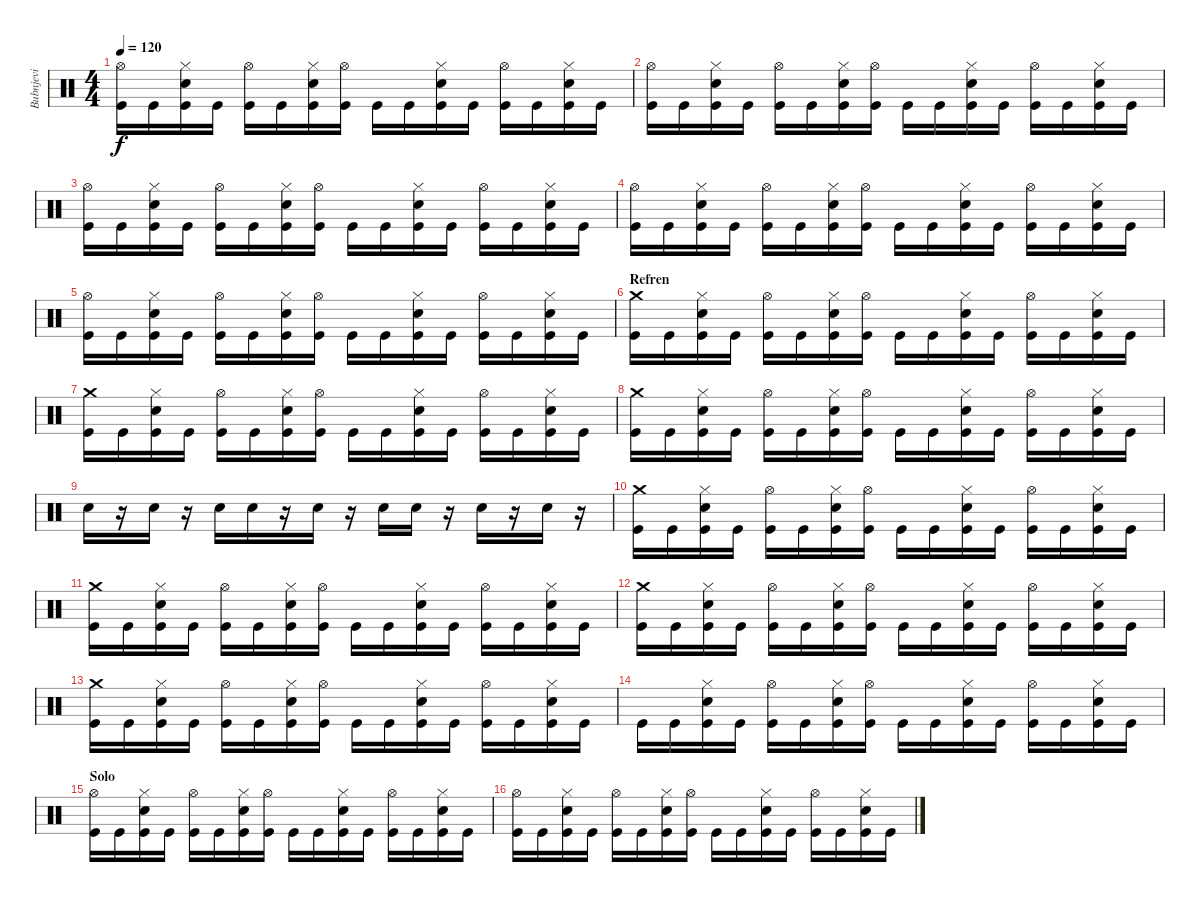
\track ("Bubnjevi" "Bubnjevi") {instrument percussion}
\staff {score}
\articulation defaults
\ts (4 4)
\tempo 120
\clef neutral
\ks c
("Hi-Hat (open)" "Kick (hit)").16{dy f} "Kick (hit)".16 ("Electric Snare (hit)" "Hi-Hat (closed)" "Kick (hit)").16 "Kick (hit)".16 ("Hi-Hat (open)" "Kick (hit)").16 "Kick (hit)".16 ("Electric Snare (hit)" "Hi-Hat (closed)" "Kick (hit)").16 ("Hi-Hat (open)" "Kick (hit)").16 "Kick (hit)".16 "Kick (hit)".16 ("Electric Snare (hit)" "Hi-Hat (closed)" "Kick (hit)").16 "Kick (hit)".16 ("Hi-Hat (open)" "Kick (hit)").16 "Kick (hit)".16 ("Electric Snare (hit)" "Hi-Hat (closed)" "Kick (hit)").16 "Kick (hit)".16 |
("Hi-Hat (open)" "Kick (hit)").16 "Kick (hit)".16 ("Electric Snare (hit)" "Hi-Hat (closed)" "Kick (hit)").16 "Kick (hit)".16 ("Hi-Hat (open)" "Kick (hit)").16 "Kick (hit)".16 ("Electric Snare (hit)" "Hi-Hat (closed)" "Kick (hit)").16 ("Hi-Hat (open)" "Kick (hit)").16 "Kick (hit)".16 "Kick (hit)".16 ("Electric Snare (hit)" "Hi-Hat (closed)" "Kick (hit)").16 "Kick (hit)".16 ("Hi-Hat (open)" "Kick (hit)").16 "Kick (hit)".16 ("Electric Snare (hit)" "Hi-Hat (closed)" "Kick (hit)").16 "Kick (hit)".16 |
("Hi-Hat (open)" "Kick (hit)").16 "Kick (hit)".16 ("Electric Snare (hit)" "Hi-Hat (closed)" "Kick (hit)").16 "Kick (hit)".16 ("Hi-Hat (open)" "Kick (hit)").16 "Kick (hit)".16 ("Electric Snare (hit)" "Hi-Hat (closed)" "Kick (hit)").16 ("Hi-Hat (open)" "Kick (hit)").16 "Kick (hit)".16 "Kick (hit)".16 ("Electric Snare (hit)" "Hi-Hat (closed)" "Kick (hit)").16 "Kick (hit)".16 ("Hi-Hat (open)" "Kick (hit)").16 "Kick (hit)".16 ("Electric Snare (hit)" "Hi-Hat (closed)" "Kick (hit)").16 "Kick (hit)".16 |
("Hi-Hat (open)" "Kick (hit)").16 "Kick (hit)".16 ("Electric Snare (hit)" "Hi-Hat (closed)" "Kick (hit)").16 "Kick (hit)".16 ("Hi-Hat (open)" "Kick (hit)").16 "Kick (hit)".16 ("Electric Snare (hit)" "Hi-Hat (closed)" "Kick (hit)").16 ("Hi-Hat (open)" "Kick (hit)").16 "Kick (hit)".16 "Kick (hit)".16 ("Electric Snare (hit)" "Hi-Hat (closed)" "Kick (hit)").16 "Kick (hit)".16 ("Hi-Hat (open)" "Kick (hit)").16 "Kick (hit)".16 ("Electric Snare (hit)" "Hi-Hat (closed)" "Kick (hit)").16 "Kick (hit)".16 |
("Hi-Hat (open)" "Kick (hit)").16 "Kick (hit)".16 ("Electric Snare (hit)" "Hi-Hat (closed)" "Kick (hit)").16 "Kick (hit)".16 ("Hi-Hat (open)" "Kick (hit)").16 "Kick (hit)".16 ("Electric Snare (hit)" "Hi-Hat (closed)" "Kick (hit)").16 ("Hi-Hat (open)" "Kick (hit)").16 "Kick (hit)".16 "Kick (hit)".16 ("Electric Snare (hit)" "Hi-Hat (closed)" "Kick (hit)").16 "Kick (hit)".16 ("Hi-Hat (open)" "Kick (hit)").16 "Kick (hit)".16 ("Electric Snare (hit)" "Hi-Hat (closed)" "Kick (hit)").16 "Kick (hit)".16 |
\section ("" "Refren")
("Crash medium (hit)" "Kick (hit)").16 "Kick (hit)".16 ("Electric Snare (hit)" "Hi-Hat (closed)" "Kick (hit)").16 "Kick (hit)".16 ("Hi-Hat (open)" "Kick (hit)").16 "Kick (hit)".16 ("Electric Snare (hit)" "Hi-Hat (closed)" "Kick (hit)").16 ("Hi-Hat (open)" "Kick (hit)").16 "Kick (hit)".16 "Kick (hit)".16 ("Electric Snare (hit)" "Hi-Hat (closed)" "Kick (hit)").16 "Kick (hit)".16 ("Hi-Hat (open)" "Kick (hit)").16 "Kick (hit)".16 ("Electric Snare (hit)" "Hi-Hat (closed)" "Kick (hit)").16 "Kick (hit)".16 |
("Crash medium (hit)" "Kick (hit)").16 "Kick (hit)".16 ("Electric Snare (hit)" "Hi-Hat (closed)" "Kick (hit)").16 "Kick (hit)".16 ("Hi-Hat (open)" "Kick (hit)").16 "Kick (hit)".16 ("Electric Snare (hit)" "Hi-Hat (closed)" "Kick (hit)").16 ("Hi-Hat (open)" "Kick (hit)").16 "Kick (hit)".16 "Kick (hit)".16 ("Electric Snare (hit)" "Hi-Hat (closed)" "Kick (hit)").16 "Kick (hit)".16 ("Hi-Hat (open)" "Kick (hit)").16 "Kick (hit)".16 ("Electric Snare (hit)" "Hi-Hat (closed)" "Kick (hit)").16 "Kick (hit)".16 |
("Crash medium (hit)" "Kick (hit)").16 "Kick (hit)".16 ("Electric Snare (hit)" "Hi-Hat (closed)" "Kick (hit)").16 "Kick (hit)".16 ("Hi-Hat (open)" "Kick (hit)").16 "Kick (hit)".16 ("Electric Snare (hit)" "Hi-Hat (closed)" "Kick (hit)").16 ("Hi-Hat (open)" "Kick (hit)").16 "Kick (hit)".16 "Kick (hit)".16 ("Electric Snare (hit)" "Hi-Hat (closed)" "Kick (hit)").16 "Kick (hit)".16 ("Hi-Hat (open)" "Kick (hit)").16 "Kick (hit)".16 ("Electric Snare (hit)" "Hi-Hat (closed)" "Kick (hit)").16 "Kick (hit)".16 |
"Electric Snare (hit)".16 r.16 "Electric Snare (hit)".16 r.16 "Electric Snare (hit)".16 "Electric Snare (hit)".16 r.16 "Electric Snare (hit)".16 r.16 "Electric Snare (hit)".16 "Electric Snare (hit)".16 r.16 "Electric Snare (hit)".16 r.16 "Electric Snare (hit)".16 r.16 |
("Crash medium (hit)" "Kick (hit)").16 "Kick (hit)".16 ("Electric Snare (hit)" "Hi-Hat (closed)" "Kick (hit)").16 "Kick (hit)".16 ("Hi-Hat (open)" "Kick (hit)").16 "Kick (hit)".16 ("Electric Snare (hit)" "Hi-Hat (closed)" "Kick (hit)").16 ("Hi-Hat (open)" "Kick (hit)").16 "Kick (hit)".16 "Kick (hit)".16 ("Electric Snare (hit)" "Hi-Hat (closed)" "Kick (hit)").16 "Kick (hit)".16 ("Hi-Hat (open)" "Kick (hit)").16 "Kick (hit)".16 ("Electric Snare (hit)" "Hi-Hat (closed)" "Kick (hit)").16 "Kick (hit)".16 |
("Crash medium (hit)" "Kick (hit)").16 "Kick (hit)".16 ("Electric Snare (hit)" "Hi-Hat (closed)" "Kick (hit)").16 "Kick (hit)".16 ("Hi-Hat (open)" "Kick (hit)").16 "Kick (hit)".16 ("Electric Snare (hit)" "Hi-Hat (closed)" "Kick (hit)").16 ("Hi-Hat (open)" "Kick (hit)").16 "Kick (hit)".16 "Kick (hit)".16 ("Electric Snare (hit)" "Hi-Hat (closed)" "Kick (hit)").16 "Kick (hit)".16 ("Hi-Hat (open)" "Kick (hit)").16 "Kick (hit)".16 ("Electric Snare (hit)" "Hi-Hat (closed)" "Kick (hit)").16 "Kick (hit)".16 |
("Crash medium (hit)" "Kick (hit)").16 "Kick (hit)".16 ("Electric Snare (hit)" "Hi-Hat (closed)" "Kick (hit)").16 "Kick (hit)".16 ("Hi-Hat (open)" "Kick (hit)").16 "Kick (hit)".16 ("Electric Snare (hit)" "Hi-Hat (closed)" "Kick (hit)").16 ("Hi-Hat (open)" "Kick (hit)").16 "Kick (hit)".16 "Kick (hit)".16 ("Electric Snare (hit)" "Hi-Hat (closed)" "Kick (hit)").16 "Kick (hit)".16 ("Hi-Hat (open)" "Kick (hit)").16 "Kick (hit)".16 ("Electric Snare (hit)" "Hi-Hat (closed)" "Kick (hit)").16 "Kick (hit)".16 |
("Crash medium (hit)" "Kick (hit)").16 "Kick (hit)".16 ("Electric Snare (hit)" "Hi-Hat (closed)" "Kick (hit)").16 "Kick (hit)".16 ("Hi-Hat (open)" "Kick (hit)").16 "Kick (hit)".16 ("Electric Snare (hit)" "Hi-Hat (closed)" "Kick (hit)").16 ("Hi-Hat (open)" "Kick (hit)").16 "Kick (hit)".16 "Kick (hit)".16 ("Electric Snare (hit)" "Hi-Hat (closed)" "Kick (hit)").16 "Kick (hit)".16 ("Hi-Hat (open)" "Kick (hit)").16 "Kick (hit)".16 ("Electric Snare (hit)" "Hi-Hat (closed)" "Kick (hit)").16 "Kick (hit)".16 |
"Kick (hit)".16 "Kick (hit)".16 ("Electric Snare (hit)" "Hi-Hat (closed)" "Kick (hit)").16 "Kick (hit)".16 ("Hi-Hat (open)" "Kick (hit)").16 "Kick (hit)".16 ("Electric Snare (hit)" "Hi-Hat (closed)" "Kick (hit)").16 ("Hi-Hat (open)" "Kick (hit)").16 "Kick (hit)".16 "Kick (hit)".16 ("Electric Snare (hit)" "Hi-Hat (closed)" "Kick (hit)").16 "Kick (hit)".16 ("Hi-Hat (open)" "Kick (hit)").16 "Kick (hit)".16 ("Electric Snare (hit)" "Hi-Hat (closed)" "Kick (hit)").16 "Kick (hit)".16 |
\section ("" "Solo")
("Hi-Hat (open)" "Kick (hit)").16 "Kick (hit)".16 ("Electric Snare (hit)" "Hi-Hat (closed)" "Kick (hit)").16 "Kick (hit)".16 ("Hi-Hat (open)" "Kick (hit)").16 "Kick (hit)".16 ("Electric Snare (hit)" "Hi-Hat (closed)" "Kick (hit)").16 ("Hi-Hat (open)" "Kick (hit)").16 "Kick (hit)".16 "Kick (hit)".16 ("Electric Snare (hit)" "Hi-Hat (closed)" "Kick (hit)").16 "Kick (hit)".16 ("Hi-Hat (open)" "Kick (hit)").16 "Kick (hit)".16 ("Electric Snare (hit)" "Hi-Hat (closed)" "Kick (hit)").16 "Kick (hit)".16 |
("Hi-Hat (open)" "Kick (hit)").16 "Kick (hit)".16 ("Electric Snare (hit)" "Hi-Hat (closed)" "Kick (hit)").16 "Kick (hit)".16 ("Hi-Hat (open)" "Kick (hit)").16 "Kick (hit)".16 ("Electric Snare (hit)" "Hi-Hat (closed)" "Kick (hit)").16 ("Hi-Hat (open)" "Kick (hit)").16 "Kick (hit)".16 "Kick (hit)".16 ("Electric Snare (hit)" "Hi-Hat (closed)" "Kick (hit)").16 "Kick (hit)".16 ("Hi-Hat (open)" "Kick (hit)").16 "Kick (hit)".16 ("Electric Snare (hit)" "Hi-Hat (closed)" "Kick (hit)").16 "Kick (hit)".16
